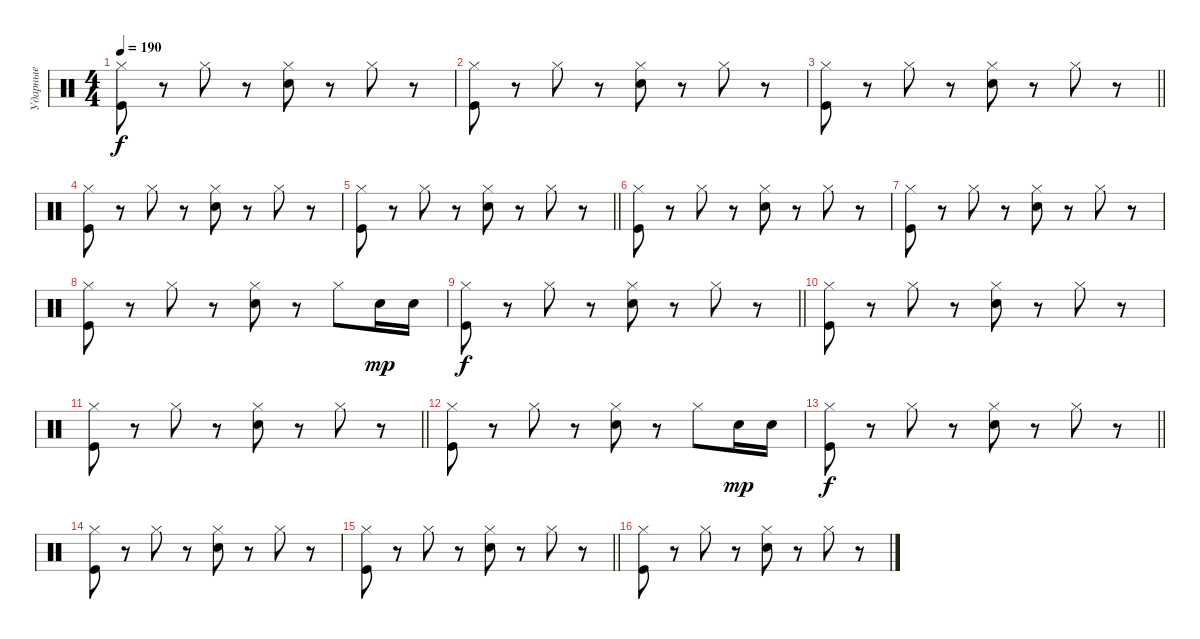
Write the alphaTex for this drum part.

\track ("Ударные" "Ударные") {instrument percussion}
\staff {score}
\articulation defaults
\ts (4 4)
\tempo 190
\clef neutral
\ks c
("Hi-Hat (closed)" "Kick (hit)").8{dy f} r.8 "Hi-Hat (closed)".8 r.8 ("Hi-Hat (closed)" "Electric Snare (hit)").8 r.8 "Hi-Hat (closed)".8 r.8 |
("Hi-Hat (closed)" "Kick (hit)").8 r.8 "Hi-Hat (closed)".8 r.8 ("Hi-Hat (closed)" "Electric Snare (hit)").8 r.8 "Hi-Hat (closed)".8 r.8 |
\barLineRight lightlight
("Hi-Hat (closed)" "Kick (hit)").8 r.8 "Hi-Hat (closed)".8 r.8 ("Hi-Hat (closed)" "Electric Snare (hit)").8 r.8 "Hi-Hat (closed)".8 r.8 |
("Hi-Hat (closed)" "Kick (hit)").8 r.8 "Hi-Hat (closed)".8 r.8 ("Hi-Hat (closed)" "Electric Snare (hit)").8 r.8 "Hi-Hat (closed)".8 r.8 |
\barLineRight lightlight
("Hi-Hat (closed)" "Kick (hit)").8 r.8 "Hi-Hat (closed)".8 r.8 ("Hi-Hat (closed)" "Electric Snare (hit)").8 r.8 "Hi-Hat (closed)".8 r.8 |
\section ("" " ")
("Hi-Hat (closed)" "Kick (hit)").8 r.8 "Hi-Hat (closed)".8 r.8 ("Hi-Hat (closed)" "Electric Snare (hit)").8 r.8 "Hi-Hat (closed)".8 r.8 |
("Hi-Hat (closed)" "Kick (hit)").8 r.8 "Hi-Hat (closed)".8 r.8 ("Hi-Hat (closed)" "Electric Snare (hit)").8 r.8 "Hi-Hat (closed)".8 r.8 |
("Hi-Hat (closed)" "Kick (hit)").8 r.8 "Hi-Hat (closed)".8 r.8 ("Hi-Hat (closed)" "Electric Snare (hit)").8 r.8 "Hi-Hat (closed)".8 "Electric Snare (hit)".16{dy mp} "Electric Snare (hit)".16 |
\barLineRight lightlight
("Hi-Hat (closed)" "Kick (hit)").8{dy f} r.8 "Hi-Hat (closed)".8 r.8 ("Hi-Hat (closed)" "Electric Snare (hit)").8 r.8 "Hi-Hat (closed)".8 r.8 |
("Hi-Hat (closed)" "Kick (hit)").8 r.8 "Hi-Hat (closed)".8 r.8 ("Hi-Hat (closed)" "Electric Snare (hit)").8 r.8 "Hi-Hat (closed)".8 r.8 |
\barLineRight lightlight
("Hi-Hat (closed)" "Kick (hit)").8 r.8 "Hi-Hat (closed)".8 r.8 ("Hi-Hat (closed)" "Electric Snare (hit)").8 r.8 "Hi-Hat (closed)".8 r.8 |
("Hi-Hat (closed)" "Kick (hit)").8 r.8 "Hi-Hat (closed)".8 r.8 ("Hi-Hat (closed)" "Electric Snare (hit)").8 r.8 "Hi-Hat (closed)".8 "Electric Snare (hit)".16{dy mp} "Electric Snare (hit)".16 |
\barLineRight lightlight
("Hi-Hat (closed)" "Kick (hit)").8{dy f} r.8 "Hi-Hat (closed)".8 r.8 ("Hi-Hat (closed)" "Electric Snare (hit)").8 r.8 "Hi-Hat (closed)".8 r.8 |
\section ("" " ")
("Hi-Hat (closed)" "Kick (hit)").8 r.8 "Hi-Hat (closed)".8 r.8 ("Hi-Hat (closed)" "Electric Snare (hit)").8 r.8 "Hi-Hat (closed)".8 r.8 |
\barLineRight lightlight
("Hi-Hat (closed)" "Kick (hit)").8 r.8 "Hi-Hat (closed)".8 r.8 ("Hi-Hat (closed)" "Electric Snare (hit)").8 r.8 "Hi-Hat (closed)".8 r.8 |
("Hi-Hat (closed)" "Kick (hit)").8 r.8 "Hi-Hat (closed)".8 r.8 ("Hi-Hat (closed)" "Electric Snare (hit)").8 r.8 "Hi-Hat (closed)".8 r.8
